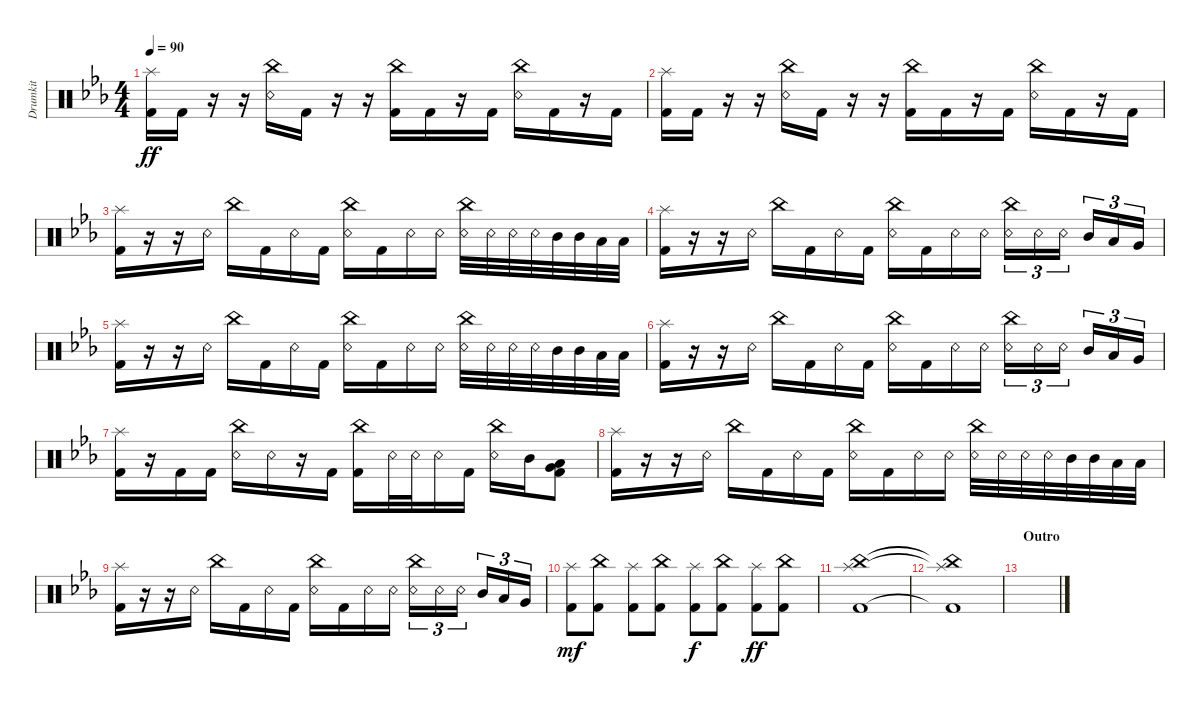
\track ("Drumkit" "Drumkit") {instrument percussion}
\staff {score}
\articulation defaults
\ts (4 4)
\tempo 90
\clef neutral
\ks cminor
("Kick (hit) 2" "Splash (hit)").16{dy ff} "Kick (hit) 2".16 r.16 r.16 ("China (hit)" "Snare (rim shot)").16 "Kick (hit) 2".16 r.16 r.16 ("China (hit)" "Kick (hit) 2").16 "Kick (hit) 2".16 r.16 "Kick (hit) 2".16 ("China (hit)" "Snare (rim shot)").16 "Kick (hit) 2".16 r.16 "Kick (hit) 2".16 |
("Kick (hit) 2" "Splash (hit)").16 "Kick (hit) 2".16 r.16 r.16 ("China (hit)" "Snare (rim shot)").16 "Kick (hit) 2".16 r.16 r.16 ("China (hit)" "Kick (hit) 2").16 "Kick (hit) 2".16 r.16 "Kick (hit) 2".16 ("China (hit)" "Snare (rim shot)").16 "Kick (hit) 2".16 r.16 "Kick (hit) 2".16 |
("Splash (hit)" "Kick (hit) 2").16 r.16 r.16 "Snare (rim shot)".16 "China (hit)".16 "Kick (hit) 2".16 "Snare (rim shot)".16 "Kick (hit) 2".16 ("China (hit)" "Snare (rim shot)").16 "Kick (hit) 2".16 "Snare (rim shot)".16 "Snare (rim shot)".16 ("China (hit)" "Snare (rim shot)").32 "Snare (rim shot)".32 "Snare (rim shot)".32 "Snare (rim shot)".32 "Mid Tom (hit)".32 "Mid Tom (hit)".32 "Low Tom (hit)".32 "Low Tom (hit)".32 |
("Splash (hit)" "Kick (hit) 2").16 r.16 r.16 "Snare (rim shot)".16 "China (hit)".16 "Kick (hit) 2".16 "Snare (rim shot)".16 "Kick (hit) 2".16 ("China (hit)" "Snare (rim shot)").16 "Kick (hit) 2".16 "Snare (rim shot)".16 "Snare (rim shot)".16 ("China (hit)" "Snare (rim shot)").16{tu (3 2)} "Snare (rim shot)".16{tu (3 2)} "Snare (rim shot)".16{tu (3 2)} "Mid Tom (hit)".16{tu (3 2)} "Low Tom (hit)".16{tu (3 2)} "Very Low Tom (hit)".16{tu (3 2)} |
("Splash (hit)" "Kick (hit) 2").16 r.16 r.16 "Snare (rim shot)".16 "China (hit)".16 "Kick (hit) 2".16 "Snare (rim shot)".16 "Kick (hit) 2".16 ("China (hit)" "Snare (rim shot)").16 "Kick (hit) 2".16 "Snare (rim shot)".16 "Snare (rim shot)".16 ("China (hit)" "Snare (rim shot)").32 "Snare (rim shot)".32 "Snare (rim shot)".32 "Snare (rim shot)".32 "Mid Tom (hit)".32 "Mid Tom (hit)".32 "Low Tom (hit)".32 "Low Tom (hit)".32 |
("Splash (hit)" "Kick (hit) 2").16 r.16 r.16 "Snare (rim shot)".16 "China (hit)".16 "Kick (hit) 2".16 "Snare (rim shot)".16 "Kick (hit) 2".16 ("China (hit)" "Snare (rim shot)").16 "Kick (hit) 2".16 "Snare (rim shot)".16 "Snare (rim shot)".16 ("China (hit)" "Snare (rim shot)").16{tu (3 2)} "Snare (rim shot)".16{tu (3 2)} "Snare (rim shot)".16{tu (3 2)} "Mid Tom (hit)".16{tu (3 2)} "Low Tom (hit)".16{tu (3 2)} "Very Low Tom (hit)".16{tu (3 2)} |
("Splash (hit)" "Kick (hit) 2").16 r.16 "Kick (hit) 2".16 "Kick (hit) 2".16 ("China (hit)" "Snare (rim shot)").16 "Snare (rim shot)".16 r.16 "Kick (hit) 2".16 ("Kick (hit) 2" "China (hit)").16 "Snare (rim shot)".32 "Snare (rim shot)".32 "Snare (rim shot)".16 "Kick (hit) 2".16 ("Snare (rim shot)" "China (hit)").16 "Mid Tom (hit)".16 ("Very Low Tom (hit)" "Kick (hit) 2" "Low Tom (hit)").8 |
("Splash (hit)" "Kick (hit) 2").16 r.16 r.16 "Snare (rim shot)".16 "China (hit)".16 "Kick (hit) 2".16 "Snare (rim shot)".16 "Kick (hit) 2".16 ("China (hit)" "Snare (rim shot)").16 "Kick (hit) 2".16 "Snare (rim shot)".16 "Snare (rim shot)".16 ("China (hit)" "Snare (rim shot)").32 "Snare (rim shot)".32 "Snare (rim shot)".32 "Snare (rim shot)".32 "Mid Tom (hit)".32 "Mid Tom (hit)".32 "Low Tom (hit)".32 "Low Tom (hit)".32 |
("Splash (hit)" "Kick (hit) 2").16 r.16 r.16 "Snare (rim shot)".16 "China (hit)".16 "Kick (hit) 2".16 "Snare (rim shot)".16 "Kick (hit) 2".16 ("China (hit)" "Snare (rim shot)").16 "Kick (hit) 2".16 "Snare (rim shot)".16 "Snare (rim shot)".16 ("China (hit)" "Snare (rim shot)").16{tu (3 2)} "Snare (rim shot)".16{tu (3 2)} "Snare (rim shot)".16{tu (3 2)} "Mid Tom (hit)".16{tu (3 2)} "Low Tom (hit)".16{tu (3 2)} "Very Low Tom (hit)".16{tu (3 2)} |
("Splash (hit)" "Kick (hit) 2").8{dy mf} ("Kick (hit) 2" "China (hit)").8 ("Kick (hit) 2" "Splash (hit)").8 ("Kick (hit) 2" "China (hit)").8 ("Kick (hit) 2" "Splash (hit)").8{dy f} ("Kick (hit) 2" "China (hit)").8 ("Kick (hit) 2" "Splash (hit)").8{dy ff} ("Kick (hit) 2" "China (hit)").8 |
("Kick (hit) 2" "Splash (hit)" "China (hit)").1 |
("Kick (hit) 2"{t} "Splash (hit)"{t} "China (hit)"{t}).1 |
\section ("" "Outro")
